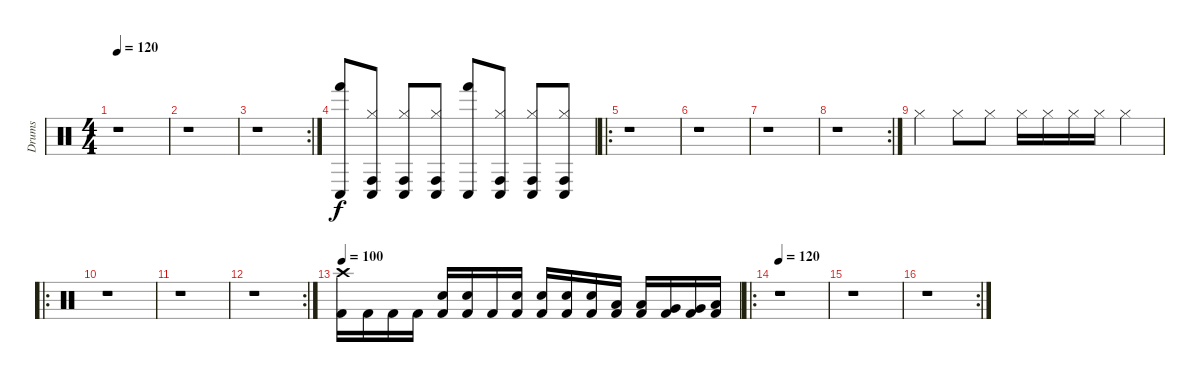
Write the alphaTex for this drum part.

\track ("Drums" "Drums") {instrument percussion}
\staff {score}
\articulation defaults
\ts (4 4)
\tempo 120
\clef neutral
\ks c
r.1{dy f} |
r.1 |
\rc 2
r.1 |
("Hand (hit)" "Conga low (hit)").8 ("Conga high (hit)" "Conga low (hit)" "Hi-Hat (closed)").8 ("Conga high (hit)" "Conga low (hit)" "Hi-Hat (closed)").8 ("Conga high (hit)" "Conga low (hit)" "Hi-Hat (closed)").8 ("Hand (hit)" "Conga low (hit)").8 ("Conga high (hit)" "Conga low (hit)" "Hi-Hat (closed)").8 ("Conga high (hit)" "Conga low (hit)" "Hi-Hat (closed)").8 ("Conga high (hit)" "Conga low (hit)" "Hi-Hat (closed)").8 |
\ro
r.1 |
r.1 |
r.1 |
\rc 2
r.1 |
"Hi-Hat (closed)".4 "Hi-Hat (closed)".8 "Hi-Hat (closed)".8 "Hi-Hat (closed)".16 "Hi-Hat (closed)".16 "Hi-Hat (closed)".16 "Hi-Hat (closed)".16 "Hi-Hat (closed)".4 |
\ro
r.1 |
r.1 |
\rc 2
r.1 |
\tempo 100
("Crash high (hit)" "Kick (hit) 2").16 "Kick (hit) 2".16 "Kick (hit) 2".16 "Kick (hit) 2".16 ("Electric Snare (hit)" "Kick (hit) 2").16 ("Electric Snare (hit)" "Kick (hit) 2").16 "Kick (hit) 2".16 ("Electric Snare (hit)" "Kick (hit) 2").16 ("Electric Snare (hit)" "Kick (hit) 2").16 ("Electric Snare (hit)" "Kick (hit) 2").16 ("Electric Snare (hit)" "Kick (hit) 2").16 ("Low Tom (hit)" "Kick (hit) 2").16 ("Low Tom (hit)" "Kick (hit) 2").16 ("Very Low Tom (hit)" "Kick (hit) 2").16 ("Very Low Tom (hit)" "Kick (hit) 2").16 ("Low Floor Tom (hit)" "Kick (hit) 2").16 |
\ro
\tempo 120
r.1 |
r.1 |
\rc 2
r.1
